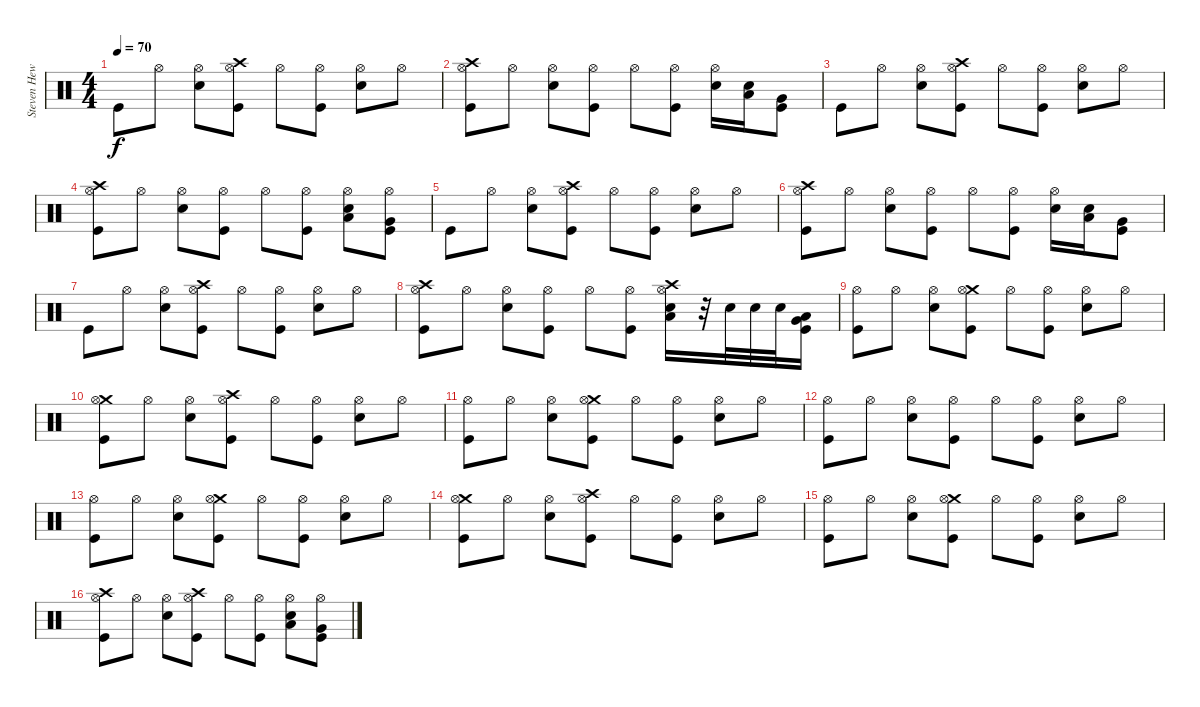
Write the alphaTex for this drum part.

\track ("Steven Hewitt " "Steven Hew") {instrument percussion}
\staff {score}
\articulation defaults
\ts (4 4)
\tempo 70
\clef neutral
\ks c "Kick (hit)".8{dy f} "Hi-Hat (open)".8
("Snare (hit) 2" "Hi-Hat (open)").8 ("Crash high (hit)" "Hi-Hat (open)" "Kick (hit)").8 "Hi-Hat (open)".8 ("Hi-Hat (open)" "Kick (hit)").8 ("Snare (hit) 2" "Hi-Hat (open)").8 "Hi-Hat (open)".8 |
("Crash high (hit)" "Hi-Hat (open)" "Kick (hit)").8 "Hi-Hat (open)".8 ("Snare (hit) 2" "Hi-Hat (open)").8 ("Hi-Hat (open)" "Kick (hit)").8 "Hi-Hat (open)".8 ("Hi-Hat (open)" "Kick (hit)").8 ("Snare (hit) 2" "Hi-Hat (open)").16 ("Low Tom (hit)" "Snare (hit) 2").16 ("Very Low Tom (hit)" "Kick (hit)").8 |
"Kick (hit)".8 "Hi-Hat (open)".8 ("Snare (hit) 2" "Hi-Hat (open)").8 ("Crash high (hit)" "Hi-Hat (open)" "Kick (hit)").8 "Hi-Hat (open)".8 ("Hi-Hat (open)" "Kick (hit)").8 ("Snare (hit) 2" "Hi-Hat (open)").8 "Hi-Hat (open)".8 |
("Crash high (hit)" "Hi-Hat (open)" "Kick (hit)").8 "Hi-Hat (open)".8 ("Snare (hit) 2" "Hi-Hat (open)").8 ("Hi-Hat (open)" "Kick (hit)").8 "Hi-Hat (open)".8 ("Hi-Hat (open)" "Kick (hit)").8 ("Low Tom (hit)" "Snare (hit) 2" "Hi-Hat (open)").8 ("Very Low Tom (hit)" "Hi-Hat (open)" "Kick (hit)").8 |
"Kick (hit)".8 "Hi-Hat (open)".8 ("Snare (hit) 2" "Hi-Hat (open)").8 ("Crash high (hit)" "Hi-Hat (open)" "Kick (hit)").8 "Hi-Hat (open)".8 ("Hi-Hat (open)" "Kick (hit)").8 ("Snare (hit) 2" "Hi-Hat (open)").8 "Hi-Hat (open)".8 |
("Crash high (hit)" "Hi-Hat (open)" "Kick (hit)").8 "Hi-Hat (open)".8 ("Snare (hit) 2" "Hi-Hat (open)").8 ("Hi-Hat (open)" "Kick (hit)").8 "Hi-Hat (open)".8 ("Hi-Hat (open)" "Kick (hit)").8 ("Snare (hit) 2" "Hi-Hat (open)").16 ("Low Tom (hit)" "Snare (hit) 2").16 ("Very Low Tom (hit)" "Kick (hit)").8 |
"Kick (hit)".8 "Hi-Hat (open)".8 ("Snare (hit) 2" "Hi-Hat (open)").8 ("Crash high (hit)" "Hi-Hat (open)" "Kick (hit)").8 "Hi-Hat (open)".8 ("Hi-Hat (open)" "Kick (hit)").8 ("Snare (hit) 2" "Hi-Hat (open)").8 "Hi-Hat (open)".8 |
("Crash high (hit)" "Hi-Hat (open)" "Kick (hit)").8 "Hi-Hat (open)".8 ("Snare (hit) 2" "Hi-Hat (open)").8 ("Hi-Hat (open)" "Kick (hit)").8 "Hi-Hat (open)".8 ("Hi-Hat (open)" "Kick (hit)").8 ("Crash high (hit)" "Low Tom (hit)" "Snare (hit) 2" "Hi-Hat (open)").16 r.32 "Snare (hit) 2".32 "Snare (hit) 2".32 "Snare (hit) 2".32 ("Very Low Tom (hit)" "Low Tom (hit)" "Kick (hit)").16 |
("Hi-Hat (open)" "Kick (hit)").8 "Hi-Hat (open)".8 ("Snare (hit) 2" "Hi-Hat (open)").8 ("Crash medium (hit)" "Hi-Hat (open)" "Kick (hit)").8 "Hi-Hat (open)".8 ("Hi-Hat (open)" "Kick (hit)").8 ("Snare (hit) 2" "Hi-Hat (open)").8 "Hi-Hat (open)".8 |
("Crash medium (hit)" "Hi-Hat (open)" "Kick (hit)").8 "Hi-Hat (open)".8 ("Snare (hit) 2" "Hi-Hat (open)").8 ("Crash high (hit)" "Hi-Hat (open)" "Kick (hit)").8 "Hi-Hat (open)".8 ("Hi-Hat (open)" "Kick (hit)").8 ("Snare (hit) 2" "Hi-Hat (open)").8 "Hi-Hat (open)".8 |
("Hi-Hat (open)" "Kick (hit)").8 "Hi-Hat (open)".8 ("Snare (hit) 2" "Hi-Hat (open)").8 ("Crash medium (hit)" "Hi-Hat (open)" "Kick (hit)").8 "Hi-Hat (open)".8 ("Hi-Hat (open)" "Kick (hit)").8 ("Snare (hit) 2" "Hi-Hat (open)").8 "Hi-Hat (open)".8 |
("Hi-Hat (open)" "Kick (hit)").8 "Hi-Hat (open)".8 ("Snare (hit) 2" "Hi-Hat (open)").8 ("Hi-Hat (open)" "Kick (hit)").8 "Hi-Hat (open)".8 ("Hi-Hat (open)" "Kick (hit)").8 ("Snare (hit) 2" "Hi-Hat (open)").8 "Hi-Hat (open)".8 |
("Hi-Hat (open)" "Kick (hit)").8 "Hi-Hat (open)".8 ("Snare (hit) 2" "Hi-Hat (open)").8 ("Crash medium (hit)" "Hi-Hat (open)" "Kick (hit)").8 "Hi-Hat (open)".8 ("Hi-Hat (open)" "Kick (hit)").8 ("Snare (hit) 2" "Hi-Hat (open)").8 "Hi-Hat (open)".8 |
("Crash medium (hit)" "Hi-Hat (open)" "Kick (hit)").8 "Hi-Hat (open)".8 ("Snare (hit) 2" "Hi-Hat (open)").8 ("Crash high (hit)" "Hi-Hat (open)" "Kick (hit)").8 "Hi-Hat (open)".8 ("Hi-Hat (open)" "Kick (hit)").8 ("Snare (hit) 2" "Hi-Hat (open)").8 "Hi-Hat (open)".8 |
("Hi-Hat (open)" "Kick (hit)").8 "Hi-Hat (open)".8 ("Snare (hit) 2" "Hi-Hat (open)").8 ("Crash medium (hit)" "Hi-Hat (open)" "Kick (hit)").8 "Hi-Hat (open)".8 ("Hi-Hat (open)" "Kick (hit)").8 ("Snare (hit) 2" "Hi-Hat (open)").8 "Hi-Hat (open)".8 |
("Crash high (hit)" "Hi-Hat (open)" "Kick (hit)").8 "Hi-Hat (open)".8 ("Snare (hit) 2" "Hi-Hat (open)").8 ("Crash high (hit)" "Hi-Hat (open)" "Kick (hit)").8 "Hi-Hat (open)".8 ("Hi-Hat (open)" "Kick (hit)").8 ("Low Tom (hit)" "Snare (hit) 2" "Hi-Hat (open)").8 ("Very Low Tom (hit)" "Hi-Hat (open)" "Kick (hit)").8
